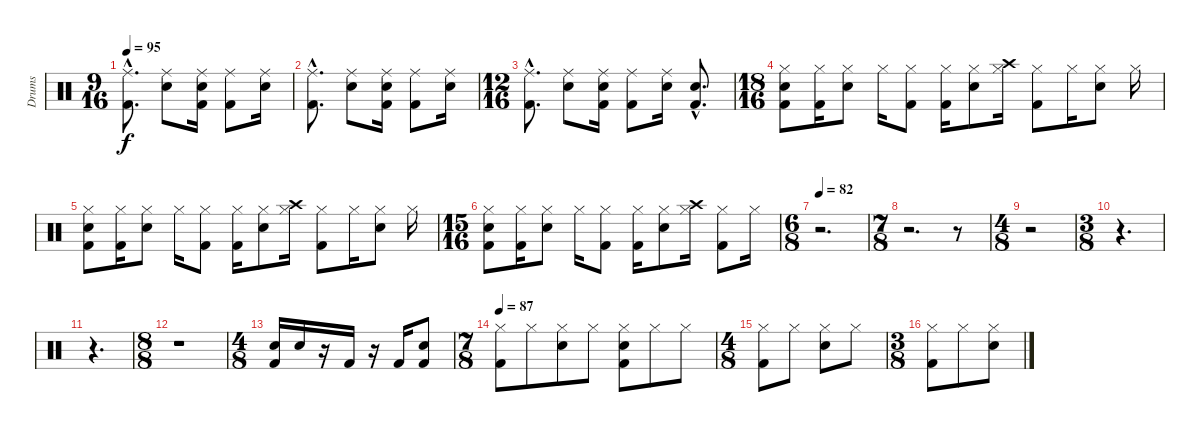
\track ("Drums" "Drums") {instrument percussion}
\staff {score}
\articulation defaults
\ts (9 16)
\tempo 95
\clef neutral
\ks c
("Kick (hit) 2"{hac} "Ride (middle)"{hac}).8{d dy f} ("Snare (hit) 2" "Ride (middle)").8 ("Kick (hit) 2" "Snare (hit) 2" "Ride (middle)").16 ("Kick (hit) 2" "Ride (middle)").8 ("Snare (hit) 2" "Ride (middle)").16 |
("Kick (hit) 2"{hac} "Ride (middle)"{hac}).8{d} ("Snare (hit) 2" "Ride (middle)").8 ("Kick (hit) 2" "Snare (hit) 2" "Ride (middle)").16 ("Kick (hit) 2" "Ride (middle)").8 ("Snare (hit) 2" "Ride (middle)").16 |
\ts (12 16)
("Kick (hit) 2"{hac} "Ride (middle)"{hac}).8{d} ("Snare (hit) 2" "Ride (middle)").8 ("Kick (hit) 2" "Snare (hit) 2" "Ride (middle)").16 ("Kick (hit) 2" "Ride (middle)").8 ("Snare (hit) 2" "Ride (middle)").16 ("Kick (hit) 2"{hac} "Snare (hit) 2"{hac}).8{d} |
\ts (18 16)
("Hi-Hat (closed)" "Snare (hit) 2" "Kick (hit) 2").8 ("Hi-Hat (closed)" "Kick (hit) 2").16 ("Hi-Hat (closed)" "Snare (hit) 2").8 "Hi-Hat (closed)".16 ("Hi-Hat (closed)" "Kick (hit) 2").8 ("Hi-Hat (closed)" "Kick (hit) 2").16 ("Hi-Hat (closed)" "Snare (hit) 2").8 ("Crash high (hit)" "Hi-Hat (closed)").16 ("Hi-Hat (closed)" "Kick (hit) 2").8 "Hi-Hat (closed)".16 ("Hi-Hat (closed)" "Snare (hit) 2").8 "Hi-Hat (closed)".16 |
("Hi-Hat (closed)" "Snare (hit) 2" "Kick (hit) 2").8 ("Hi-Hat (closed)" "Kick (hit) 2").16 ("Hi-Hat (closed)" "Snare (hit) 2").8 "Hi-Hat (closed)".16 ("Hi-Hat (closed)" "Kick (hit) 2").8 ("Hi-Hat (closed)" "Kick (hit) 2").16 ("Hi-Hat (closed)" "Snare (hit) 2").8 ("Crash high (hit)" "Hi-Hat (closed)").16 ("Hi-Hat (closed)" "Kick (hit) 2").8 "Hi-Hat (closed)".16 ("Hi-Hat (closed)" "Snare (hit) 2").8 "Hi-Hat (closed)".16 |
\ts (15 16)
("Hi-Hat (closed)" "Snare (hit) 2" "Kick (hit) 2").8 ("Hi-Hat (closed)" "Kick (hit) 2").16 ("Hi-Hat (closed)" "Snare (hit) 2").8 "Hi-Hat (closed)".16 ("Hi-Hat (closed)" "Kick (hit) 2").8 ("Hi-Hat (closed)" "Kick (hit) 2").16 ("Hi-Hat (closed)" "Snare (hit) 2").8 ("Crash high (hit)" "Hi-Hat (closed)").16 ("Hi-Hat (closed)" "Kick (hit) 2").8 "Hi-Hat (closed)".16 |
\ts (6 8)
\tempo 82
r.2{d} |
\ts (7 8)
r.2{d} r.8 |
\ts (4 8)
r.2 |
\ts (3 8)
r.4{d} |
r.4{d} |
\ts (8 8)
r.1 |
\ts (4 8)
("Kick (hit) 2" "Snare (hit) 2").16 "Snare (hit) 2".16 r.16 "Kick (hit) 2".16 r.16 "Kick (hit) 2".16 ("Snare (hit) 2" "Kick (hit) 2").8 |
\ts (7 8)
\tempo 87
("Hi-Hat (closed)" "Kick (hit) 2").8 "Hi-Hat (closed)".8 ("Hi-Hat (closed)" "Snare (hit) 2").8 "Hi-Hat (closed)".8 ("Hi-Hat (closed)" "Kick (hit) 2" "Snare (hit) 2").8 "Hi-Hat (closed)".8 "Hi-Hat (closed)".8 |
\ts (4 8)
("Hi-Hat (closed)" "Kick (hit) 2").8 "Hi-Hat (closed)".8 ("Hi-Hat (closed)" "Snare (hit) 2").8 "Hi-Hat (closed)".8 |
\ts (3 8)
("Hi-Hat (closed)" "Kick (hit) 2").8 "Hi-Hat (closed)".8 ("Hi-Hat (closed)" "Snare (hit) 2").8
